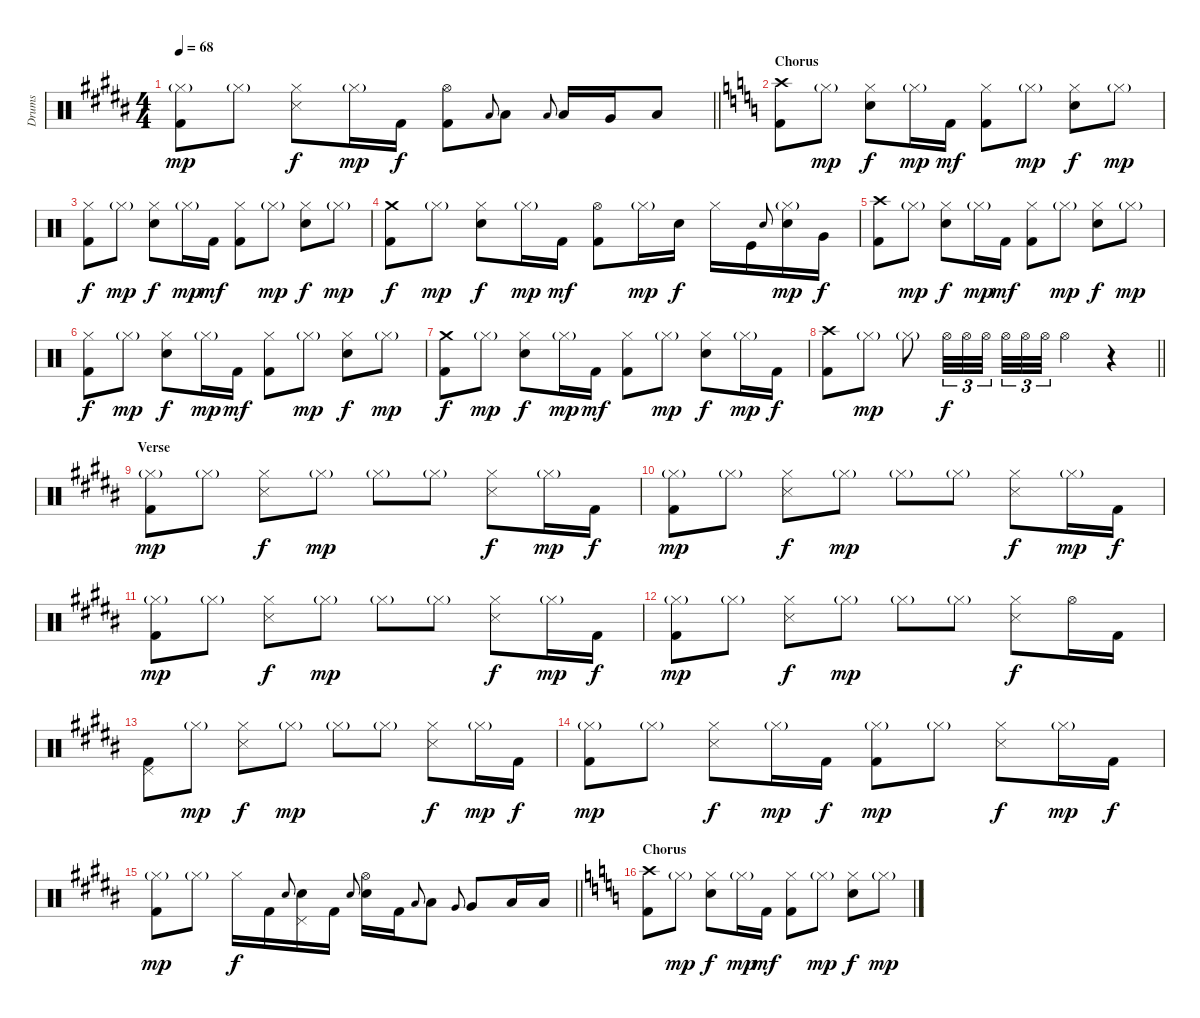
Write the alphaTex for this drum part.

\track ("Drums" "Drums") {instrument percussion}
\staff {score}
\articulation defaults
\ts (4 4)
\tempo 68
\clef neutral
\barLineRight lightlight
\ks g#minor
("Hi-Hat (closed)"{g} "Kick (hit) 2").8{dy mp} "Hi-Hat (closed)"{g}.8 ("Hi-Hat (closed)" "Metronome (hit)").8{dy f} "Hi-Hat (closed)"{g}.16{dy mp} "Kick (hit) 2".16{dy f} ("Hi-Hat (open)" "Kick (hit) 2").8 "Low Tom (hit)".8{gr onbeat} "Low Tom (hit)".8 "Low Tom (hit)".8{gr onbeat} "Low Tom (hit)".16 "Very Low Tom (hit)".16 "Low Floor Tom (hit)".8 |
\section ("" "Chorus")
\ks aminor
("Crash high (hit)" "Kick (hit) 2").8 "Hi-Hat (closed)"{g}.8{dy mp} ("Hi-Hat (closed)" "Snare (hit) 2").8{dy f} "Hi-Hat (closed)"{g}.16{dy mp} "Kick (hit) 2".16{dy mf} ("Hi-Hat (closed)" "Kick (hit) 2").8 "Hi-Hat (closed)"{g}.8{dy mp} ("Hi-Hat (closed)" "Snare (hit) 2").8{dy f} "Hi-Hat (closed)"{g}.8{dy mp} |
("Hi-Hat (closed)" "Kick (hit) 2").8{dy f} "Hi-Hat (closed)"{g}.8{dy mp} ("Hi-Hat (closed)" "Snare (hit) 2").8{dy f} "Hi-Hat (closed)"{g}.16{dy mp} "Kick (hit) 2".16{dy mf} ("Hi-Hat (closed)" "Kick (hit) 2").8 "Hi-Hat (closed)"{g}.8{dy mp} ("Hi-Hat (closed)" "Snare (hit) 2").8{dy f} "Hi-Hat (closed)"{g}.8{dy mp} |
("Crash medium (hit)" "Kick (hit) 2").8{dy f} "Hi-Hat (closed)"{g}.8{dy mp} ("Hi-Hat (closed)" "Snare (hit) 2").8{dy f} "Hi-Hat (closed)"{g}.16{dy mp} "Kick (hit) 2".16{dy mf} ("Hi-Hat (open)" "Kick (hit) 2").8 "Hi-Hat (closed)"{g}.16{dy mp} "Snare (hit) 2".16{dy f} "Hi-Hat (closed)".16 "Kick (hit)".16 "Snare (hit) 2".8{gr onbeat} ("Hi-Hat (closed)"{g} "Snare (hit) 2").16{dy mp} "Very Low Tom (hit)".16{dy f} |
("Crash high (hit)" "Kick (hit) 2").8 "Hi-Hat (closed)"{g}.8{dy mp} ("Hi-Hat (closed)" "Snare (hit) 2").8{dy f} "Hi-Hat (closed)"{g}.16{dy mp} "Kick (hit) 2".16{dy mf} ("Hi-Hat (closed)" "Kick (hit) 2").8 "Hi-Hat (closed)"{g}.8{dy mp} ("Hi-Hat (closed)" "Snare (hit) 2").8{dy f} "Hi-Hat (closed)"{g}.8{dy mp} |
("Hi-Hat (closed)" "Kick (hit) 2").8{dy f} "Hi-Hat (closed)"{g}.8{dy mp} ("Hi-Hat (closed)" "Snare (hit) 2").8{dy f} "Hi-Hat (closed)"{g}.16{dy mp} "Kick (hit) 2".16{dy mf} ("Hi-Hat (closed)" "Kick (hit) 2").8 "Hi-Hat (closed)"{g}.8{dy mp} ("Hi-Hat (closed)" "Snare (hit) 2").8{dy f} "Hi-Hat (closed)"{g}.8{dy mp} |
("Crash medium (hit)" "Kick (hit) 2").8{dy f} "Hi-Hat (closed)"{g}.8{dy mp} ("Hi-Hat (closed)" "Snare (hit) 2").8{dy f} "Hi-Hat (closed)"{g}.16{dy mp} "Kick (hit) 2".16{dy mf} ("Hi-Hat (closed)" "Kick (hit) 2").8 "Hi-Hat (closed)"{g}.8{dy mp} ("Hi-Hat (closed)" "Snare (hit) 2").8{dy f} "Hi-Hat (closed)"{g}.16{dy mp} "Kick (hit) 2".16{dy f} |
\barLineRight lightlight
("Crash high (hit)" "Kick (hit) 2").8 "Hi-Hat (closed)"{g}.8{dy mp} "Hi-Hat (closed)"{g}.8{volume 4} "Hi-Hat (open)".32{tu (3 2) dy f volume 9} "Hi-Hat (open)".32{tu (3 2)} "Hi-Hat (open)".32{tu (3 2) beam splitsecondary} "Hi-Hat (open)".32{tu (3 2)} "Hi-Hat (open)".32{tu (3 2)} "Hi-Hat (open)".32{tu (3 2)} "Hi-Hat (open)".4 r.4{volume 13} |
\section ("" "Verse")
\ks g#minor
("Hi-Hat (closed)"{g} "Kick (hit) 2").8{dy mp} "Hi-Hat (closed)"{g}.8 ("Hi-Hat (closed)" "Metronome (hit)").8{dy f} "Hi-Hat (closed)"{g}.8{dy mp} "Hi-Hat (closed)"{g}.8 "Hi-Hat (closed)"{g}.8 ("Hi-Hat (closed)" "Metronome (hit)").8{dy f} "Hi-Hat (closed)"{g}.16{dy mp} "Kick (hit) 2".16{dy f} |
("Hi-Hat (closed)"{g} "Kick (hit) 2").8{dy mp} "Hi-Hat (closed)"{g}.8 ("Hi-Hat (closed)" "Metronome (hit)").8{dy f} "Hi-Hat (closed)"{g}.8{dy mp} "Hi-Hat (closed)"{g}.8 "Hi-Hat (closed)"{g}.8 ("Hi-Hat (closed)" "Metronome (hit)").8{dy f} "Hi-Hat (closed)"{g}.16{dy mp} "Kick (hit) 2".16{dy f} |
("Hi-Hat (closed)"{g} "Kick (hit) 2").8{dy mp} "Hi-Hat (closed)"{g}.8 ("Hi-Hat (closed)" "Metronome (hit)").8{dy f} "Hi-Hat (closed)"{g}.8{dy mp} "Hi-Hat (closed)"{g}.8 "Hi-Hat (closed)"{g}.8 ("Hi-Hat (closed)" "Metronome (hit)").8{dy f} "Hi-Hat (closed)"{g}.16{dy mp} "Kick (hit) 2".16{dy f} |
("Hi-Hat (closed)"{g} "Kick (hit) 2").8{dy mp} "Hi-Hat (closed)"{g}.8 ("Hi-Hat (closed)" "Metronome (hit)").8{dy f} "Hi-Hat (closed)"{g}.8{dy mp} "Hi-Hat (closed)"{g}.8 "Hi-Hat (closed)"{g}.8 ("Hi-Hat (closed)" "Metronome (hit)").8{dy f} "Hi-Hat (open)".16 "Kick (hit) 2".16 |
("Pedal Hi-Hat (hit)" "Kick (hit) 2").8 "Hi-Hat (closed)"{g}.8{dy mp} ("Hi-Hat (closed)" "Metronome (hit)").8{dy f} "Hi-Hat (closed)"{g}.8{dy mp} "Hi-Hat (closed)"{g}.8 "Hi-Hat (closed)"{g}.8 ("Hi-Hat (closed)" "Metronome (hit)").8{dy f} "Hi-Hat (closed)"{g}.16{dy mp} "Kick (hit) 2".16{dy f} |
("Hi-Hat (closed)"{g} "Kick (hit) 2").8{dy mp} "Hi-Hat (closed)"{g}.8 ("Hi-Hat (closed)" "Metronome (hit)").8{dy f} "Hi-Hat (closed)"{g}.16{dy mp} "Kick (hit) 2".16{dy f} ("Hi-Hat (closed)"{g} "Kick (hit) 2").8{dy mp} "Hi-Hat (closed)"{g}.8 ("Hi-Hat (closed)" "Metronome (hit)").8{dy f} "Hi-Hat (closed)"{g}.16{dy mp} "Kick (hit) 2".16{dy f} |
\barLineRight lightlight
("Hi-Hat (closed)"{g} "Kick (hit) 2").8{dy mp} "Hi-Hat (closed)"{g}.8 "Hi-Hat (closed)".16{dy f} "Kick (hit) 2".16 "Snare (hit) 2".8{gr onbeat} ("Pedal Hi-Hat (hit)" "Snare (hit) 2").16 "Kick (hit) 2".16 "Snare (hit) 2".8{gr onbeat} ("Hi-Hat (open)" "Snare (hit) 2").16 "Kick (hit) 2".16 "Low Tom (hit)".8{gr onbeat} "Low Tom (hit)".8 "Very Low Tom (hit)".8{gr onbeat} "Very Low Tom (hit)".8 "Low Floor Tom (hit)".16 "Low Floor Tom (hit)".16 |
\section ("" "Chorus")
\ks aminor
("Crash high (hit)" "Kick (hit) 2").8 "Hi-Hat (closed)"{g}.8{dy mp} ("Hi-Hat (closed)" "Snare (hit) 2").8{dy f} "Hi-Hat (closed)"{g}.16{dy mp} "Kick (hit) 2".16{dy mf} ("Hi-Hat (closed)" "Kick (hit) 2").8 "Hi-Hat (closed)"{g}.8{dy mp} ("Hi-Hat (closed)" "Snare (hit) 2").8{dy f} "Hi-Hat (closed)"{g}.8{dy mp}
